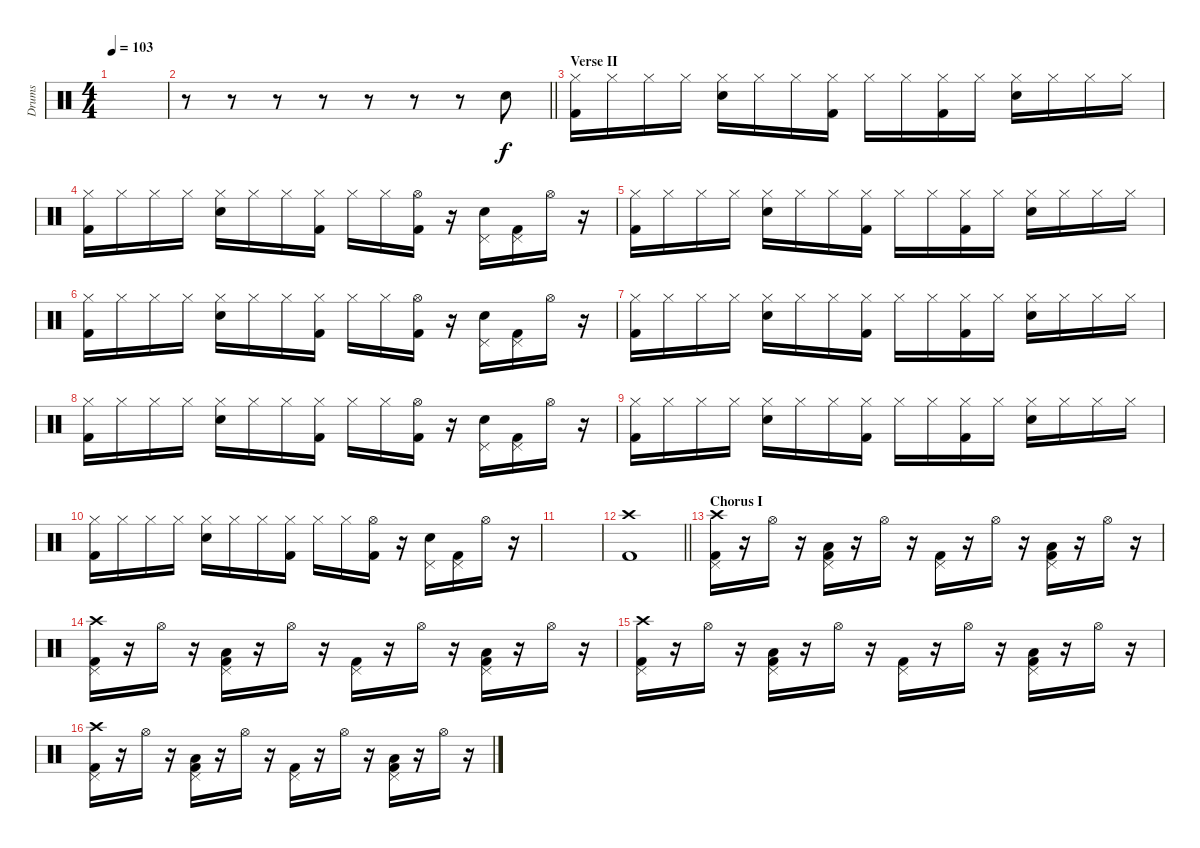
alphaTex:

\track ("Drums" "Drums") {instrument percussion}
\staff {score}
\articulation defaults
\ts (4 4)
\tempo 103
\clef neutral
\ks c
|
\barLineRight lightlight
r.8 r.8 r.8 r.8 r.8 r.8 r.8 "Electric Snare (hit)".8 |
\section ("" "Verse II")
("Hi-Hat (closed)" "Kick (hit) 2").16 "Hi-Hat (closed)".16 "Hi-Hat (closed)".16 "Hi-Hat (closed)".16 ("Hi-Hat (closed)" "Electric Snare (hit)").16 "Hi-Hat (closed)".16 "Hi-Hat (closed)".16 ("Hi-Hat (closed)" "Kick (hit) 2").16 "Hi-Hat (closed)".16 "Hi-Hat (closed)".16 ("Hi-Hat (closed)" "Kick (hit) 2").16 "Hi-Hat (closed)".16 ("Hi-Hat (closed)" "Electric Snare (hit)").16 "Hi-Hat (closed)".16 "Hi-Hat (closed)".16 "Hi-Hat (closed)".16 |
("Hi-Hat (closed)" "Kick (hit) 2").16 "Hi-Hat (closed)".16 "Hi-Hat (closed)".16 "Hi-Hat (closed)".16 ("Hi-Hat (closed)" "Electric Snare (hit)").16 "Hi-Hat (closed)".16 "Hi-Hat (closed)".16 ("Hi-Hat (closed)" "Kick (hit) 2").16 "Hi-Hat (closed)".16 "Hi-Hat (closed)".16 ("Hi-Hat (open)" "Kick (hit) 2").16 r.16 ("Pedal Hi-Hat (hit)" "Electric Snare (hit)").16 ("Pedal Hi-Hat (hit)" "Kick (hit) 2").16 "Hi-Hat (open)".16 r.16 |
("Hi-Hat (closed)" "Kick (hit) 2").16 "Hi-Hat (closed)".16 "Hi-Hat (closed)".16 "Hi-Hat (closed)".16 ("Hi-Hat (closed)" "Electric Snare (hit)").16 "Hi-Hat (closed)".16 "Hi-Hat (closed)".16 ("Hi-Hat (closed)" "Kick (hit) 2").16 "Hi-Hat (closed)".16 "Hi-Hat (closed)".16 ("Hi-Hat (closed)" "Kick (hit) 2").16 "Hi-Hat (closed)".16 ("Hi-Hat (closed)" "Electric Snare (hit)").16 "Hi-Hat (closed)".16 "Hi-Hat (closed)".16 "Hi-Hat (closed)".16 |
("Hi-Hat (closed)" "Kick (hit) 2").16 "Hi-Hat (closed)".16 "Hi-Hat (closed)".16 "Hi-Hat (closed)".16 ("Hi-Hat (closed)" "Electric Snare (hit)").16 "Hi-Hat (closed)".16 "Hi-Hat (closed)".16 ("Hi-Hat (closed)" "Kick (hit) 2").16 "Hi-Hat (closed)".16 "Hi-Hat (closed)".16 ("Hi-Hat (open)" "Kick (hit) 2").16 r.16 ("Pedal Hi-Hat (hit)" "Electric Snare (hit)").16 ("Pedal Hi-Hat (hit)" "Kick (hit) 2").16 "Hi-Hat (open)".16 r.16 |
("Hi-Hat (closed)" "Kick (hit) 2").16 "Hi-Hat (closed)".16 "Hi-Hat (closed)".16 "Hi-Hat (closed)".16 ("Hi-Hat (closed)" "Electric Snare (hit)").16 "Hi-Hat (closed)".16 "Hi-Hat (closed)".16 ("Hi-Hat (closed)" "Kick (hit) 2").16 "Hi-Hat (closed)".16 "Hi-Hat (closed)".16 ("Hi-Hat (closed)" "Kick (hit) 2").16 "Hi-Hat (closed)".16 ("Hi-Hat (closed)" "Electric Snare (hit)").16 "Hi-Hat (closed)".16 "Hi-Hat (closed)".16 "Hi-Hat (closed)".16 |
("Hi-Hat (closed)" "Kick (hit) 2").16 "Hi-Hat (closed)".16 "Hi-Hat (closed)".16 "Hi-Hat (closed)".16 ("Hi-Hat (closed)" "Electric Snare (hit)").16 "Hi-Hat (closed)".16 "Hi-Hat (closed)".16 ("Hi-Hat (closed)" "Kick (hit) 2").16 "Hi-Hat (closed)".16 "Hi-Hat (closed)".16 ("Hi-Hat (open)" "Kick (hit) 2").16 r.16 ("Pedal Hi-Hat (hit)" "Electric Snare (hit)").16 ("Pedal Hi-Hat (hit)" "Kick (hit) 2").16 "Hi-Hat (open)".16 r.16 |
("Hi-Hat (closed)" "Kick (hit) 2").16 "Hi-Hat (closed)".16 "Hi-Hat (closed)".16 "Hi-Hat (closed)".16 ("Hi-Hat (closed)" "Electric Snare (hit)").16 "Hi-Hat (closed)".16 "Hi-Hat (closed)".16 ("Hi-Hat (closed)" "Kick (hit) 2").16 "Hi-Hat (closed)".16 "Hi-Hat (closed)".16 ("Hi-Hat (closed)" "Kick (hit) 2").16 "Hi-Hat (closed)".16 ("Hi-Hat (closed)" "Electric Snare (hit)").16 "Hi-Hat (closed)".16 "Hi-Hat (closed)".16 "Hi-Hat (closed)".16 |
("Hi-Hat (closed)" "Kick (hit) 2").16 "Hi-Hat (closed)".16 "Hi-Hat (closed)".16 "Hi-Hat (closed)".16 ("Hi-Hat (closed)" "Electric Snare (hit)").16 "Hi-Hat (closed)".16 "Hi-Hat (closed)".16 ("Hi-Hat (closed)" "Kick (hit) 2").16 "Hi-Hat (closed)".16 "Hi-Hat (closed)".16 ("Hi-Hat (open)" "Kick (hit) 2").16 r.16 ("Pedal Hi-Hat (hit)" "Electric Snare (hit)").16 ("Pedal Hi-Hat (hit)" "Kick (hit) 2").16 "Hi-Hat (open)".16 r.16 |
|
\barLineRight lightlight
("Crash high (hit)" "Kick (hit) 2").1 |
\section ("" "Chorus I")
("Crash high (hit)" "Pedal Hi-Hat (hit)" "Kick (hit) 2").16 r.16 "Hi-Hat (open)".16 r.16 ("Pedal Hi-Hat (hit)" "Low Floor Tom (hit)" "Kick (hit) 2").16 r.16 "Hi-Hat (open)".16 r.16 ("Pedal Hi-Hat (hit)" "Kick (hit) 2").16 r.16 "Hi-Hat (open)".16 r.16 ("Pedal Hi-Hat (hit)" "Low Floor Tom (hit)" "Kick (hit) 2").16 r.16 "Hi-Hat (open)".16 r.16 |
("Crash high (hit)" "Pedal Hi-Hat (hit)" "Kick (hit) 2").16 r.16 "Hi-Hat (open)".16 r.16 ("Pedal Hi-Hat (hit)" "Low Floor Tom (hit)" "Kick (hit) 2").16 r.16 "Hi-Hat (open)".16 r.16 ("Pedal Hi-Hat (hit)" "Kick (hit) 2").16 r.16 "Hi-Hat (open)".16 r.16 ("Pedal Hi-Hat (hit)" "Low Floor Tom (hit)" "Kick (hit) 2").16 r.16 "Hi-Hat (open)".16 r.16 |
("Crash high (hit)" "Pedal Hi-Hat (hit)" "Kick (hit) 2").16 r.16 "Hi-Hat (open)".16 r.16 ("Pedal Hi-Hat (hit)" "Low Floor Tom (hit)" "Kick (hit) 2").16 r.16 "Hi-Hat (open)".16 r.16 ("Pedal Hi-Hat (hit)" "Kick (hit) 2").16 r.16 "Hi-Hat (open)".16 r.16 ("Pedal Hi-Hat (hit)" "Low Floor Tom (hit)" "Kick (hit) 2").16 r.16 "Hi-Hat (open)".16 r.16 |
("Crash high (hit)" "Pedal Hi-Hat (hit)" "Kick (hit) 2").16 r.16 "Hi-Hat (open)".16 r.16 ("Pedal Hi-Hat (hit)" "Low Floor Tom (hit)" "Kick (hit) 2").16 r.16 "Hi-Hat (open)".16 r.16 ("Pedal Hi-Hat (hit)" "Kick (hit) 2").16 r.16 "Hi-Hat (open)".16 r.16 ("Pedal Hi-Hat (hit)" "Low Floor Tom (hit)" "Kick (hit) 2").16 r.16 "Hi-Hat (open)".16 r.16
